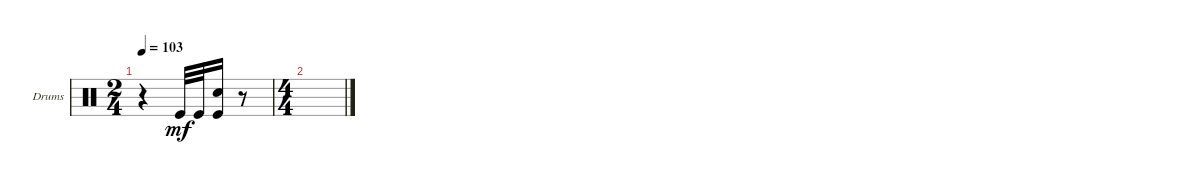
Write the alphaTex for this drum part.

\bracketExtendMode groupsimilarinstruments
\firstSystemTrackNameOrientation horizontal
\otherSystemsTrackNameOrientation horizontal
\track ("Drumkit" "Drums") {instrument percussion}
\staff {score}
\articulation defaults
\ts (2 4)
\tempo 103
\clef neutral
\ks c
r.4{dy mf} "Kick (hit)".32 "Kick (hit)".32 ("Kick (hit)" "Snare (hit) 2").16 r.8 |
\ts (4 4)
